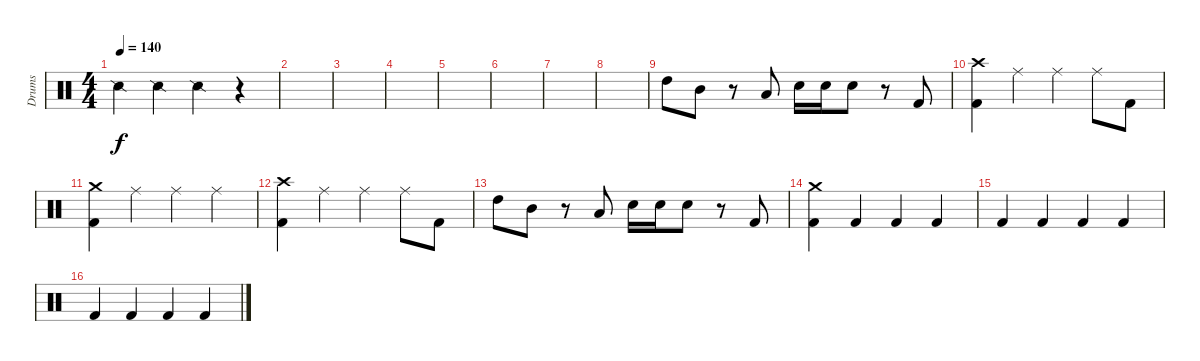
\track ("Drums" "Drums") {instrument percussion}
\staff {score}
\articulation defaults
\ts (4 4)
\tempo 140
\clef neutral
\ks c "Snare (side stick) 2".4{dy f} "Snare (side stick) 2".4 "Snare (side stick) 2".4
r.4 |
|
|
|
|
|
|
|
"High Tom (hit)".8 "Mid Tom (hit)".8 r.8 "Low Tom (hit)".8 "Electric Snare (hit)".16 "Electric Snare (hit)".16 "Electric Snare (hit)".8 r.8 "Kick (hit) 2".8 |
("Crash high (hit)" "Kick (hit) 2").4 "Ride (middle)".4 "Ride (middle)".4 "Ride (middle)".8 "Kick (hit) 2".8 |
("Crash medium (hit)" "Kick (hit) 2").4 "Ride (middle)".4 "Ride (middle)".4 "Ride (middle)".4 |
("Crash high (hit)" "Kick (hit) 2").4 "Ride (middle)".4 "Ride (middle)".4 "Ride (middle)".8 "Kick (hit) 2".8 |
"High Tom (hit)".8 "Mid Tom (hit)".8 r.8 "Low Tom (hit)".8 "Electric Snare (hit)".16 "Electric Snare (hit)".16 "Electric Snare (hit)".8 r.8 "Kick (hit) 2".8 |
("Kick (hit) 2" "Crash medium (hit)").4 "Kick (hit) 2".4 "Kick (hit) 2".4 "Kick (hit) 2".4 |
"Kick (hit) 2".4 "Kick (hit) 2".4 "Kick (hit) 2".4 "Kick (hit) 2".4 |
"Kick (hit) 2".4 "Kick (hit) 2".4 "Kick (hit) 2".4 "Kick (hit) 2".4
